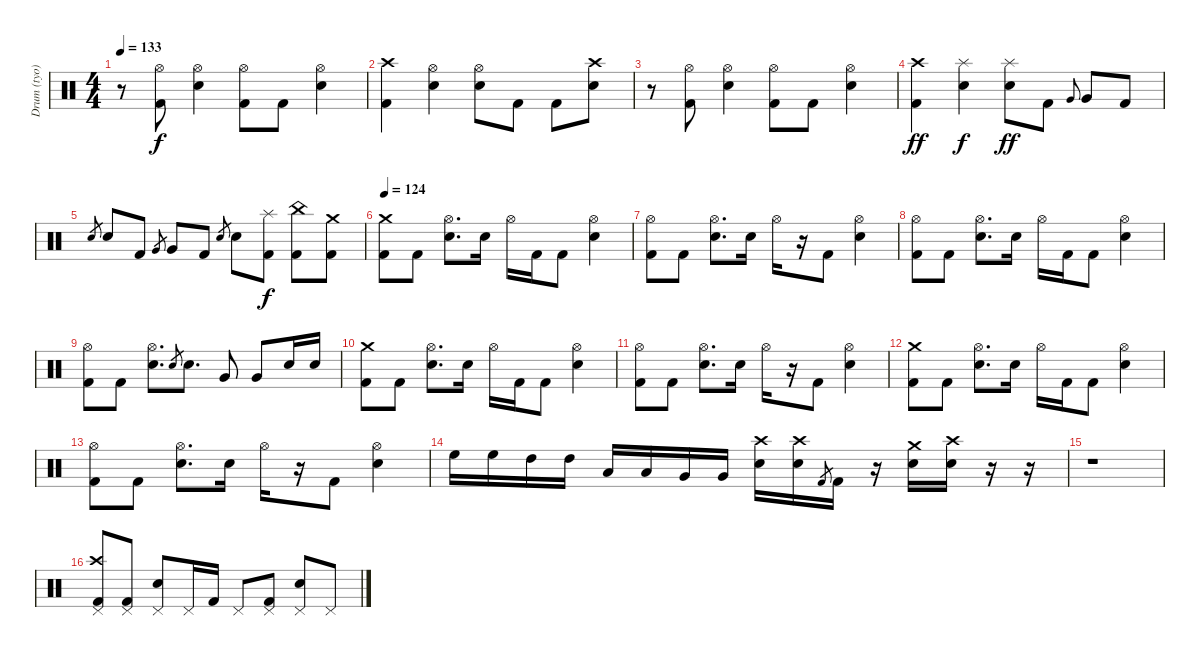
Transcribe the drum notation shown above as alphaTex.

\track ("Drum (tyo)" "Drum (tyo)") {instrument percussion}
\staff {score}
\articulation defaults
\ts (4 4)
\tempo 133
\clef neutral
\ks c
r.8{dy f} ("Kick (hit) 2" "Hi-Hat (open)").8 ("Electric Snare (hit)" "Hi-Hat (open)").4 ("Kick (hit) 2" "Hi-Hat (open)").8 "Kick (hit) 2".8 ("Electric Snare (hit)" "Hi-Hat (open)").4 |
("Crash high (hit)" "Kick (hit) 2").4 ("Electric Snare (hit)" "Hi-Hat (open)").4 ("Electric Snare (hit)" "Hi-Hat (open)").8 "Kick (hit) 2".8 "Kick (hit) 2".8 ("Electric Snare (hit)" "Crash high (hit)").8 |
r.8 ("Kick (hit) 2" "Hi-Hat (open)").8 ("Electric Snare (hit)" "Hi-Hat (open)").4 ("Kick (hit) 2" "Hi-Hat (open)").8 "Kick (hit) 2".8 ("Electric Snare (hit)" "Hi-Hat (open)").4 |
("Kick (hit) 2" "Crash high (hit)").4{dy ff} ("Electric Snare (hit)" "Splash (hit)").4{dy f} ("Electric Snare (hit)" "Splash (hit)").8{dy ff} "Kick (hit) 2".8 "Very Low Tom (hit)".8{gr onbeat} "Very Low Tom (hit)".8 "Kick (hit) 2".8 |
"Electric Snare (hit)".8{gr} "Electric Snare (hit)".8 "Kick (hit) 2".8 "Very Low Tom (hit)".8{gr} "Very Low Tom (hit)".8 "Kick (hit) 2".8 "Electric Snare (hit)".8{gr} "Electric Snare (hit)".8 ("Kick (hit) 2" "Splash (hit)").8{dy f} ("Kick (hit) 2" "China (hit)").8 ("Kick (hit) 2" "Crash medium (hit)").8 |
\tempo 124
("Crash medium (hit)" "Kick (hit) 2").8 "Kick (hit) 2".8 ("Hi-Hat (open)" "Electric Snare (hit)").8{d} "Electric Snare (hit)".16 "Hi-Hat (open)".16 "Kick (hit) 2".16 "Kick (hit) 2".8 ("Electric Snare (hit)" "Hi-Hat (open)").4 |
("Hi-Hat (open)" "Kick (hit) 2").8 "Kick (hit) 2".8 ("Hi-Hat (open)" "Electric Snare (hit)").8{d} "Electric Snare (hit)".16 "Hi-Hat (open)".16 r.16 "Kick (hit) 2".8 ("Electric Snare (hit)" "Hi-Hat (open)").4 |
("Hi-Hat (open)" "Kick (hit) 2").8 "Kick (hit) 2".8 ("Hi-Hat (open)" "Electric Snare (hit)").8{d} "Electric Snare (hit)".16 "Hi-Hat (open)".16 "Kick (hit) 2".16 "Kick (hit) 2".8 ("Electric Snare (hit)" "Hi-Hat (open)").4 |
("Hi-Hat (open)" "Kick (hit) 2").8 "Kick (hit) 2".8 ("Hi-Hat (open)" "Electric Snare (hit)").8{d} "Electric Snare (hit)".8{gr} "Electric Snare (hit)".8{d} "Very Low Tom (hit)".8 "Very Low Tom (hit)".8 "Electric Snare (hit)".16 "Electric Snare (hit)".16 |
("Crash medium (hit)" "Kick (hit) 2").8 "Kick (hit) 2".8 ("Hi-Hat (open)" "Electric Snare (hit)").8{d} "Electric Snare (hit)".16 "Hi-Hat (open)".16 "Kick (hit) 2".16 "Kick (hit) 2".8 ("Electric Snare (hit)" "Hi-Hat (open)").4 |
("Hi-Hat (open)" "Kick (hit) 2").8 "Kick (hit) 2".8 ("Hi-Hat (open)" "Electric Snare (hit)").8{d} "Electric Snare (hit)".16 "Hi-Hat (open)".16 r.16 "Kick (hit) 2".8 ("Electric Snare (hit)" "Hi-Hat (open)").4 |
("Crash medium (hit)" "Kick (hit) 2").8 "Kick (hit) 2".8 ("Hi-Hat (open)" "Electric Snare (hit)").8{d} "Electric Snare (hit)".16 "Hi-Hat (open)".16 "Kick (hit) 2".16 "Kick (hit) 2".8 ("Electric Snare (hit)" "Hi-Hat (open)").4 |
("Hi-Hat (open)" "Kick (hit) 2").8 "Kick (hit) 2".8 ("Hi-Hat (open)" "Electric Snare (hit)").8{d} "Electric Snare (hit)".16 "Hi-Hat (open)".16 r.16 "Kick (hit) 2".8 ("Electric Snare (hit)" "Hi-Hat (open)").4 |
"High Floor Tom (hit)".16 "High Floor Tom (hit)".16 "High Tom (hit)".16 "High Tom (hit)".16 "Low Tom (hit)".16 "Low Tom (hit)".16 "Very Low Tom (hit)".16 "Very Low Tom (hit)".16 ("Electric Snare (hit)" "Crash high (hit)").16 ("Electric Snare (hit)" "Crash high (hit)").16 "Kick (hit) 2".8{gr} "Kick (hit) 2".16 r.16 ("Electric Snare (hit)" "Crash medium (hit)").16 ("Electric Snare (hit)" "Crash high (hit)").16 r.16 r.16 |
r.1 |
("Kick (hit) 2" "Pedal Hi-Hat (hit)" "Crash high (hit)").8 ("Kick (hit) 2" "Pedal Hi-Hat (hit)").8 ("Electric Snare (hit)" "Pedal Hi-Hat (hit)").8 "Pedal Hi-Hat (hit)".16 "Kick (hit) 2".16 "Pedal Hi-Hat (hit)".8 ("Kick (hit) 2" "Pedal Hi-Hat (hit)").8 ("Electric Snare (hit)" "Pedal Hi-Hat (hit)").8 "Pedal Hi-Hat (hit)".8
